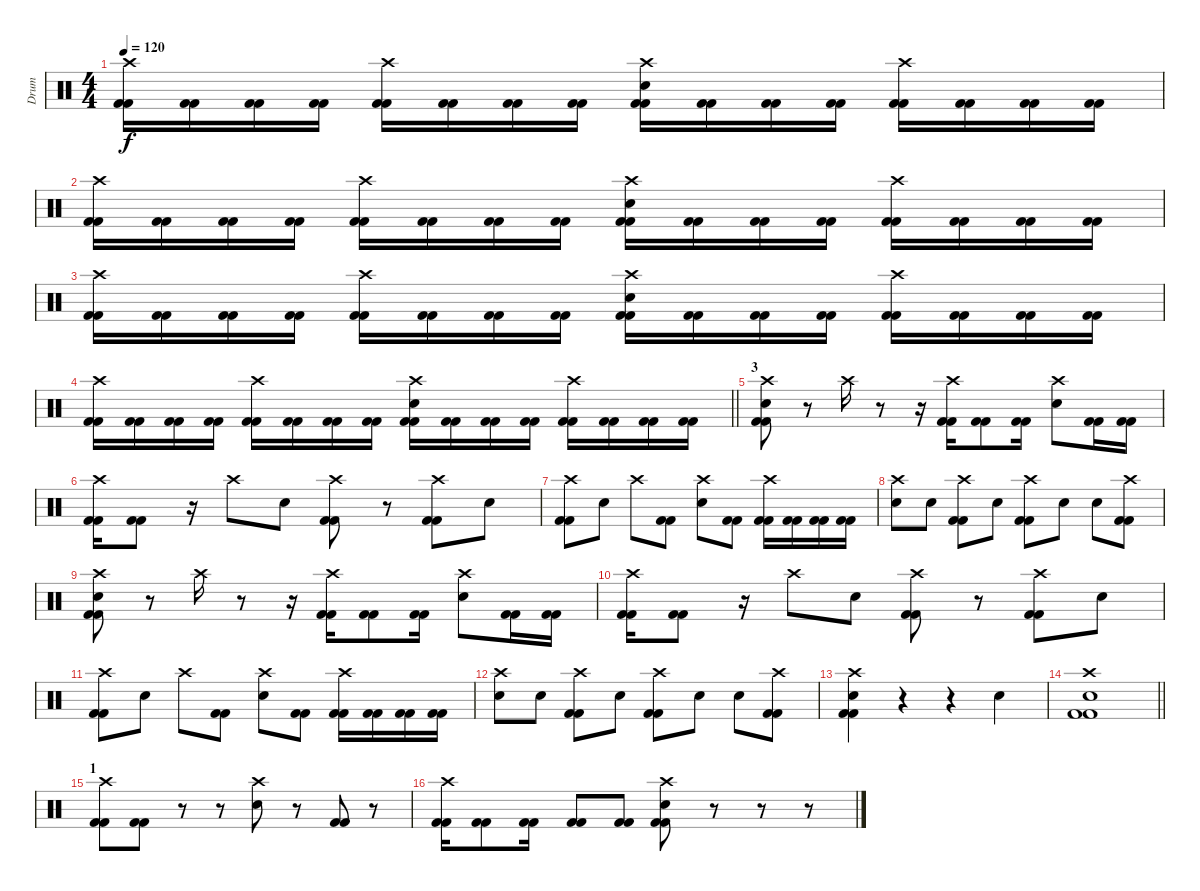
\track ("Drum" "Drum") {instrument percussion}
\staff {score}
\articulation defaults
\ts (4 4)
\tempo 120
\clef neutral
\ks c
("Crash high (hit)" "Kick (hit) 2" "Kick (hit) 2").16{dy f} ("Kick (hit) 2" "Kick (hit) 2").16 ("Kick (hit) 2" "Kick (hit) 2").16 ("Kick (hit) 2" "Kick (hit) 2").16 ("Crash high (hit)" "Kick (hit) 2" "Kick (hit) 2").16 ("Kick (hit) 2" "Kick (hit) 2").16 ("Kick (hit) 2" "Kick (hit) 2").16 ("Kick (hit) 2" "Kick (hit) 2").16 ("Crash high (hit)" "Electric Snare (hit)" "Kick (hit) 2" "Kick (hit) 2").16 ("Kick (hit) 2" "Kick (hit) 2").16 ("Kick (hit) 2" "Kick (hit) 2").16 ("Kick (hit) 2" "Kick (hit) 2").16 ("Crash high (hit)" "Kick (hit) 2" "Kick (hit) 2").16 ("Kick (hit) 2" "Kick (hit) 2").16 ("Kick (hit) 2" "Kick (hit) 2").16 ("Kick (hit) 2" "Kick (hit) 2").16 |
("Crash high (hit)" "Kick (hit) 2" "Kick (hit) 2").16 ("Kick (hit) 2" "Kick (hit) 2").16 ("Kick (hit) 2" "Kick (hit) 2").16 ("Kick (hit) 2" "Kick (hit) 2").16 ("Crash high (hit)" "Kick (hit) 2" "Kick (hit) 2").16 ("Kick (hit) 2" "Kick (hit) 2").16 ("Kick (hit) 2" "Kick (hit) 2").16 ("Kick (hit) 2" "Kick (hit) 2").16 ("Crash high (hit)" "Electric Snare (hit)" "Kick (hit) 2" "Kick (hit) 2").16 ("Kick (hit) 2" "Kick (hit) 2").16 ("Kick (hit) 2" "Kick (hit) 2").16 ("Kick (hit) 2" "Kick (hit) 2").16 ("Crash high (hit)" "Kick (hit) 2" "Kick (hit) 2").16 ("Kick (hit) 2" "Kick (hit) 2").16 ("Kick (hit) 2" "Kick (hit) 2").16 ("Kick (hit) 2" "Kick (hit) 2").16 |
("Crash high (hit)" "Kick (hit) 2" "Kick (hit) 2").16 ("Kick (hit) 2" "Kick (hit) 2").16 ("Kick (hit) 2" "Kick (hit) 2").16 ("Kick (hit) 2" "Kick (hit) 2").16 ("Crash high (hit)" "Kick (hit) 2" "Kick (hit) 2").16 ("Kick (hit) 2" "Kick (hit) 2").16 ("Kick (hit) 2" "Kick (hit) 2").16 ("Kick (hit) 2" "Kick (hit) 2").16 ("Crash high (hit)" "Electric Snare (hit)" "Kick (hit) 2" "Kick (hit) 2").16 ("Kick (hit) 2" "Kick (hit) 2").16 ("Kick (hit) 2" "Kick (hit) 2").16 ("Kick (hit) 2" "Kick (hit) 2").16 ("Crash high (hit)" "Kick (hit) 2" "Kick (hit) 2").16 ("Kick (hit) 2" "Kick (hit) 2").16 ("Kick (hit) 2" "Kick (hit) 2").16 ("Kick (hit) 2" "Kick (hit) 2").16 |
\barLineRight lightlight
("Crash high (hit)" "Kick (hit) 2" "Kick (hit) 2").16 ("Kick (hit) 2" "Kick (hit) 2").16 ("Kick (hit) 2" "Kick (hit) 2").16 ("Kick (hit) 2" "Kick (hit) 2").16 ("Crash high (hit)" "Kick (hit) 2" "Kick (hit) 2").16 ("Kick (hit) 2" "Kick (hit) 2").16 ("Kick (hit) 2" "Kick (hit) 2").16 ("Kick (hit) 2" "Kick (hit) 2").16 ("Crash high (hit)" "Electric Snare (hit)" "Kick (hit) 2" "Kick (hit) 2").16 ("Kick (hit) 2" "Kick (hit) 2").16 ("Kick (hit) 2" "Kick (hit) 2").16 ("Kick (hit) 2" "Kick (hit) 2").16 ("Crash high (hit)" "Kick (hit) 2" "Kick (hit) 2").16 ("Kick (hit) 2" "Kick (hit) 2").16 ("Kick (hit) 2" "Kick (hit) 2").16 ("Kick (hit) 2" "Kick (hit) 2").16 |
\section ("" "3")
("Crash high (hit)" "Electric Snare (hit)" "Kick (hit) 2" "Kick (hit) 2").8 r.8 "Crash high (hit)".16 r.8 r.16 ("Crash high (hit)" "Kick (hit) 2" "Kick (hit) 2").16 ("Kick (hit) 2" "Kick (hit) 2").8 ("Kick (hit) 2" "Kick (hit) 2").16 ("Crash high (hit)" "Electric Snare (hit)").8 ("Kick (hit) 2" "Kick (hit) 2").16 ("Kick (hit) 2" "Kick (hit) 2").16 |
("Crash high (hit)" "Kick (hit) 2" "Kick (hit) 2").16 ("Kick (hit) 2" "Kick (hit) 2").8 r.16 "Crash high (hit)".8 "Electric Snare (hit)".8 ("Crash high (hit)" "Kick (hit) 2" "Kick (hit) 2").8 r.8 ("Crash high (hit)" "Kick (hit) 2" "Kick (hit) 2").8 "Electric Snare (hit)".8 |
("Crash high (hit)" "Kick (hit) 2" "Kick (hit) 2").8 "Electric Snare (hit)".8 "Crash high (hit)".8 ("Kick (hit) 2" "Kick (hit) 2").8 ("Crash high (hit)" "Electric Snare (hit)").8 ("Kick (hit) 2" "Kick (hit) 2").8 ("Crash high (hit)" "Kick (hit) 2" "Kick (hit) 2").16 ("Kick (hit) 2" "Kick (hit) 2").16 ("Kick (hit) 2" "Kick (hit) 2").16 ("Kick (hit) 2" "Kick (hit) 2").16 |
("Crash high (hit)" "Electric Snare (hit)").8 "Electric Snare (hit)".8 ("Crash high (hit)" "Kick (hit) 2" "Kick (hit) 2").8 "Electric Snare (hit)".8 ("Crash high (hit)" "Kick (hit) 2" "Kick (hit) 2").8 "Electric Snare (hit)".8 "Electric Snare (hit)".8 ("Crash high (hit)" "Kick (hit) 2" "Kick (hit) 2").8 |
("Crash high (hit)" "Electric Snare (hit)" "Kick (hit) 2" "Kick (hit) 2").8 r.8 "Crash high (hit)".16 r.8 r.16 ("Crash high (hit)" "Kick (hit) 2" "Kick (hit) 2").16 ("Kick (hit) 2" "Kick (hit) 2").8 ("Kick (hit) 2" "Kick (hit) 2").16 ("Crash high (hit)" "Electric Snare (hit)").8 ("Kick (hit) 2" "Kick (hit) 2").16 ("Kick (hit) 2" "Kick (hit) 2").16 |
("Crash high (hit)" "Kick (hit) 2" "Kick (hit) 2").16 ("Kick (hit) 2" "Kick (hit) 2").8 r.16 "Crash high (hit)".8 "Electric Snare (hit)".8 ("Crash high (hit)" "Kick (hit) 2" "Kick (hit) 2").8 r.8 ("Crash high (hit)" "Kick (hit) 2" "Kick (hit) 2").8 "Electric Snare (hit)".8 |
("Crash high (hit)" "Kick (hit) 2" "Kick (hit) 2").8 "Electric Snare (hit)".8 "Crash high (hit)".8 ("Kick (hit) 2" "Kick (hit) 2").8 ("Crash high (hit)" "Electric Snare (hit)").8 ("Kick (hit) 2" "Kick (hit) 2").8 ("Crash high (hit)" "Kick (hit) 2" "Kick (hit) 2").16 ("Kick (hit) 2" "Kick (hit) 2").16 ("Kick (hit) 2" "Kick (hit) 2").16 ("Kick (hit) 2" "Kick (hit) 2").16 |
("Crash high (hit)" "Electric Snare (hit)").8 "Electric Snare (hit)".8 ("Crash high (hit)" "Kick (hit) 2" "Kick (hit) 2").8 "Electric Snare (hit)".8 ("Crash high (hit)" "Kick (hit) 2" "Kick (hit) 2").8 "Electric Snare (hit)".8 "Electric Snare (hit)".8 ("Crash high (hit)" "Kick (hit) 2" "Kick (hit) 2").8 |
("Crash high (hit)" "Electric Snare (hit)" "Kick (hit) 2" "Kick (hit) 2").4 r.4 r.4 "Electric Snare (hit)".4 |
\barLineRight lightlight
("Crash high (hit)" "Electric Snare (hit)" "Kick (hit) 2" "Kick (hit) 2").1 |
\section ("" "1")
("Crash high (hit)" "Kick (hit) 2" "Kick (hit) 2").8 ("Kick (hit) 2" "Kick (hit) 2").8 r.8 r.8 ("Crash high (hit)" "Electric Snare (hit)").8 r.8 ("Kick (hit) 2" "Kick (hit) 2").8 r.8 |
("Crash high (hit)" "Kick (hit) 2" "Kick (hit) 2").16 ("Kick (hit) 2" "Kick (hit) 2").8 ("Kick (hit) 2" "Kick (hit) 2").16 ("Kick (hit) 2" "Kick (hit) 2").8 ("Kick (hit) 2" "Kick (hit) 2").8 ("Crash high (hit)" "Electric Snare (hit)" "Kick (hit) 2" "Kick (hit) 2").8 r.8 r.8 r.8
